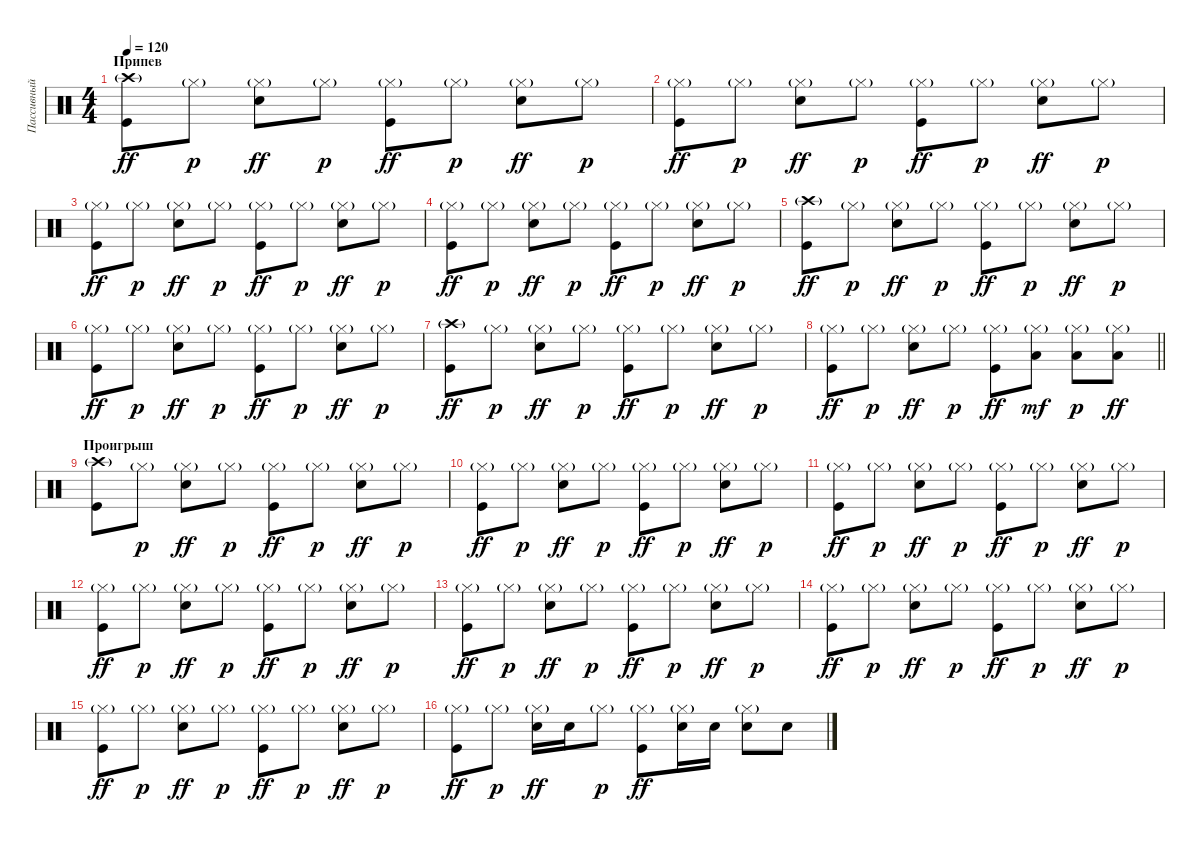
\track ("Пассивный ударник" "Пассивный ") {instrument percussion}
\staff {score}
\articulation defaults
\ts (4 4)
\section ("" "Припев")
\tempo 120
\clef neutral
\ks c
("Crash high (hit)"{g} "Kick (hit)").8{dy ff} "Hi-Hat (closed)"{g}.8{dy p} ("Hi-Hat (closed)"{g} "Electric Snare (hit)").8{dy ff} "Hi-Hat (closed)"{g}.8{dy p} ("Hi-Hat (closed)"{g} "Kick (hit)").8{dy ff} "Hi-Hat (closed)"{g}.8{dy p} ("Hi-Hat (closed)"{g} "Electric Snare (hit)").8{dy ff} "Hi-Hat (closed)"{g}.8{dy p} |
("Hi-Hat (closed)"{g} "Kick (hit)").8{dy ff} "Hi-Hat (closed)"{g}.8{dy p} ("Hi-Hat (closed)"{g} "Electric Snare (hit)").8{dy ff} "Hi-Hat (closed)"{g}.8{dy p} ("Hi-Hat (closed)"{g} "Kick (hit)").8{dy ff} "Hi-Hat (closed)"{g}.8{dy p} ("Hi-Hat (closed)"{g} "Electric Snare (hit)").8{dy ff} "Hi-Hat (closed)"{g}.8{dy p} |
("Hi-Hat (closed)"{g} "Kick (hit)").8{dy ff} "Hi-Hat (closed)"{g}.8{dy p} ("Hi-Hat (closed)"{g} "Electric Snare (hit)").8{dy ff} "Hi-Hat (closed)"{g}.8{dy p} ("Hi-Hat (closed)"{g} "Kick (hit)").8{dy ff} "Hi-Hat (closed)"{g}.8{dy p} ("Hi-Hat (closed)"{g} "Electric Snare (hit)").8{dy ff} "Hi-Hat (closed)"{g}.8{dy p} |
("Hi-Hat (closed)"{g} "Kick (hit)").8{dy ff} "Hi-Hat (closed)"{g}.8{dy p} ("Hi-Hat (closed)"{g} "Electric Snare (hit)").8{dy ff} "Hi-Hat (closed)"{g}.8{dy p} ("Hi-Hat (closed)"{g} "Kick (hit)").8{dy ff} "Hi-Hat (closed)"{g}.8{dy p} ("Hi-Hat (closed)"{g} "Electric Snare (hit)").8{dy ff} "Hi-Hat (closed)"{g}.8{dy p} |
("Crash high (hit)"{g} "Kick (hit)").8{dy ff} "Hi-Hat (closed)"{g}.8{dy p} ("Hi-Hat (closed)"{g} "Electric Snare (hit)").8{dy ff} "Hi-Hat (closed)"{g}.8{dy p} ("Hi-Hat (closed)"{g} "Kick (hit)").8{dy ff} "Hi-Hat (closed)"{g}.8{dy p} ("Hi-Hat (closed)"{g} "Electric Snare (hit)").8{dy ff} "Hi-Hat (closed)"{g}.8{dy p} |
("Hi-Hat (closed)"{g} "Kick (hit)").8{dy ff} "Hi-Hat (closed)"{g}.8{dy p} ("Hi-Hat (closed)"{g} "Electric Snare (hit)").8{dy ff} "Hi-Hat (closed)"{g}.8{dy p} ("Hi-Hat (closed)"{g} "Kick (hit)").8{dy ff} "Hi-Hat (closed)"{g}.8{dy p} ("Hi-Hat (closed)"{g} "Electric Snare (hit)").8{dy ff} "Hi-Hat (closed)"{g}.8{dy p} |
("Crash high (hit)"{g} "Kick (hit)").8{dy ff} "Hi-Hat (closed)"{g}.8{dy p} ("Hi-Hat (closed)"{g} "Electric Snare (hit)").8{dy ff} "Hi-Hat (closed)"{g}.8{dy p} ("Hi-Hat (closed)"{g} "Kick (hit)").8{dy ff} "Hi-Hat (closed)"{g}.8{dy p} ("Hi-Hat (closed)"{g} "Electric Snare (hit)").8{dy ff} "Hi-Hat (closed)"{g}.8{dy p} |
\barLineRight lightlight
("Hi-Hat (closed)"{g} "Kick (hit)").8{dy ff} "Hi-Hat (closed)"{g}.8{dy p} ("Hi-Hat (closed)"{g} "Electric Snare (hit)").8{dy ff} "Hi-Hat (closed)"{g}.8{dy p} ("Hi-Hat (closed)"{g} "Kick (hit)").8{dy ff} ("Hi-Hat (closed)"{g} "Low Tom (hit)").8{dy mf} ("Hi-Hat (closed)"{g} "Low Tom (hit)").8{dy p} ("Hi-Hat (closed)"{g} "Low Tom (hit)").8{dy ff} |
\section ("" "Проигрыш")
("Crash high (hit)"{g} "Kick (hit)").8 "Hi-Hat (closed)"{g}.8{dy p} ("Hi-Hat (closed)"{g} "Electric Snare (hit)").8{dy ff} "Hi-Hat (closed)"{g}.8{dy p} ("Hi-Hat (closed)"{g} "Kick (hit)").8{dy ff} "Hi-Hat (closed)"{g}.8{dy p} ("Hi-Hat (closed)"{g} "Electric Snare (hit)").8{dy ff} "Hi-Hat (closed)"{g}.8{dy p} |
("Hi-Hat (closed)"{g} "Kick (hit)").8{dy ff} "Hi-Hat (closed)"{g}.8{dy p} ("Hi-Hat (closed)"{g} "Electric Snare (hit)").8{dy ff} "Hi-Hat (closed)"{g}.8{dy p} ("Hi-Hat (closed)"{g} "Kick (hit)").8{dy ff} "Hi-Hat (closed)"{g}.8{dy p} ("Hi-Hat (closed)"{g} "Electric Snare (hit)").8{dy ff} "Hi-Hat (closed)"{g}.8{dy p} |
("Hi-Hat (closed)"{g} "Kick (hit)").8{dy ff} "Hi-Hat (closed)"{g}.8{dy p} ("Hi-Hat (closed)"{g} "Electric Snare (hit)").8{dy ff} "Hi-Hat (closed)"{g}.8{dy p} ("Hi-Hat (closed)"{g} "Kick (hit)").8{dy ff} "Hi-Hat (closed)"{g}.8{dy p} ("Hi-Hat (closed)"{g} "Electric Snare (hit)").8{dy ff} "Hi-Hat (closed)"{g}.8{dy p} |
("Hi-Hat (closed)"{g} "Kick (hit)").8{dy ff} "Hi-Hat (closed)"{g}.8{dy p} ("Hi-Hat (closed)"{g} "Electric Snare (hit)").8{dy ff} "Hi-Hat (closed)"{g}.8{dy p} ("Hi-Hat (closed)"{g} "Kick (hit)").8{dy ff} "Hi-Hat (closed)"{g}.8{dy p} ("Hi-Hat (closed)"{g} "Electric Snare (hit)").8{dy ff} "Hi-Hat (closed)"{g}.8{dy p} |
("Hi-Hat (closed)"{g} "Kick (hit)").8{dy ff} "Hi-Hat (closed)"{g}.8{dy p} ("Hi-Hat (closed)"{g} "Electric Snare (hit)").8{dy ff} "Hi-Hat (closed)"{g}.8{dy p} ("Hi-Hat (closed)"{g} "Kick (hit)").8{dy ff} "Hi-Hat (closed)"{g}.8{dy p} ("Hi-Hat (closed)"{g} "Electric Snare (hit)").8{dy ff} "Hi-Hat (closed)"{g}.8{dy p} |
("Hi-Hat (closed)"{g} "Kick (hit)").8{dy ff} "Hi-Hat (closed)"{g}.8{dy p} ("Hi-Hat (closed)"{g} "Electric Snare (hit)").8{dy ff} "Hi-Hat (closed)"{g}.8{dy p} ("Hi-Hat (closed)"{g} "Kick (hit)").8{dy ff} "Hi-Hat (closed)"{g}.8{dy p} ("Hi-Hat (closed)"{g} "Electric Snare (hit)").8{dy ff} "Hi-Hat (closed)"{g}.8{dy p} |
("Hi-Hat (closed)"{g} "Kick (hit)").8{dy ff} "Hi-Hat (closed)"{g}.8{dy p} ("Hi-Hat (closed)"{g} "Electric Snare (hit)").8{dy ff} "Hi-Hat (closed)"{g}.8{dy p} ("Hi-Hat (closed)"{g} "Kick (hit)").8{dy ff} "Hi-Hat (closed)"{g}.8{dy p} ("Hi-Hat (closed)"{g} "Electric Snare (hit)").8{dy ff} "Hi-Hat (closed)"{g}.8{dy p} |
("Hi-Hat (closed)"{g} "Kick (hit)").8{dy ff} "Hi-Hat (closed)"{g}.8{dy p} ("Hi-Hat (closed)"{g} "Electric Snare (hit)").16{dy ff} "Electric Snare (hit)".16 "Hi-Hat (closed)"{g}.8{dy p} ("Hi-Hat (closed)"{g} "Kick (hit)").8{dy ff} ("Hi-Hat (closed)"{g} "Electric Snare (hit)").16 "Electric Snare (hit)".16 ("Hi-Hat (closed)"{g} "Electric Snare (hit)").8 "Electric Snare (hit)".8
